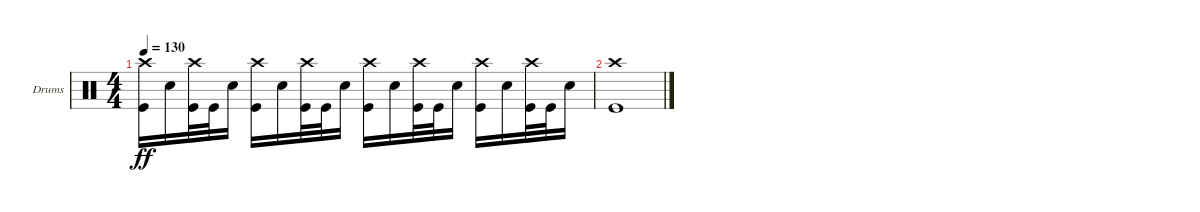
\defaultSystemsLayout 4
\bracketExtendMode groupsimilarinstruments
\firstSystemTrackNameOrientation horizontal
\otherSystemsTrackNameOrientation horizontal
\track ("Drumkit" "Drums") {instrument percussion}
\staff {score}
\articulation defaults
\ts (4 4)
\tempo 130
\clef neutral
\ks c
("Kick (hit)" "Crash high (hit)").16{dy ff} "Snare (hit) 2".16 ("Kick (hit)" "Crash high (hit)").32 "Kick (hit)".32 "Snare (hit) 2".16 ("Kick (hit)" "Crash high (hit)").16 "Snare (hit) 2".16 ("Kick (hit)" "Crash high (hit)").32 "Kick (hit)".32 "Snare (hit) 2".16 ("Kick (hit)" "Crash high (hit)").16 "Snare (hit) 2".16 ("Kick (hit)" "Crash high (hit)").32 "Kick (hit)".32 "Snare (hit) 2".16 ("Kick (hit)" "Crash high (hit)").16 "Snare (hit) 2".16 ("Kick (hit)" "Crash high (hit)").32 "Kick (hit)".32 "Snare (hit) 2".16 |
("Kick (hit)" "Crash high (hit)").1
